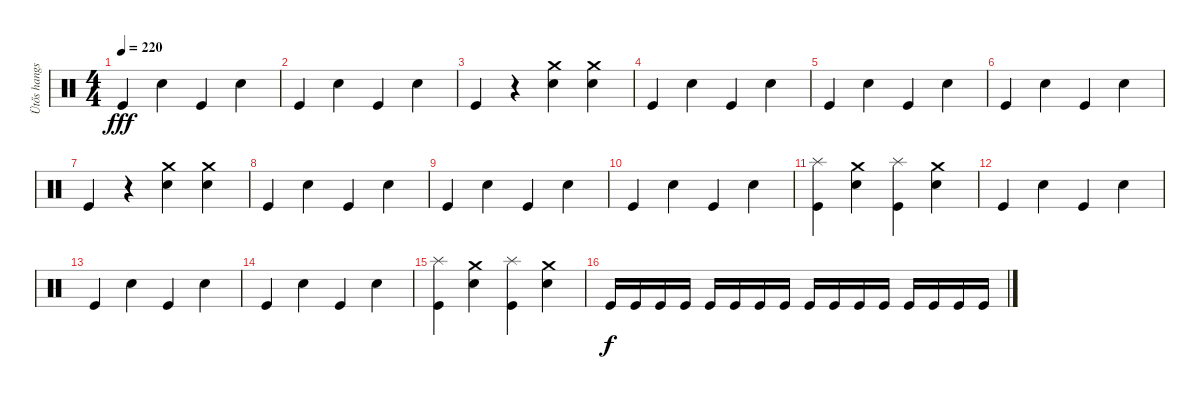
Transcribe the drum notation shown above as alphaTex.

\track ("Ütős hangszer" "Ütős hangs") {instrument percussion}
\staff {score}
\articulation defaults
\ts (4 4)
\tempo 220
\clef neutral
\ks c "Kick (hit)".4{dy fff} "Snare (hit) 2".4 "Kick (hit)".4 "Snare (hit) 2".4
|
"Kick (hit)".4 "Snare (hit) 2".4 "Kick (hit)".4 "Snare (hit) 2".4 |
"Kick (hit)".4 r.4 ("Crash medium (hit)" "Snare (hit) 2").4 ("Crash medium (hit)" "Snare (hit) 2").4 |
"Kick (hit)".4 "Snare (hit) 2".4 "Kick (hit)".4 "Snare (hit) 2".4 |
"Kick (hit)".4 "Snare (hit) 2".4 "Kick (hit)".4 "Snare (hit) 2".4 |
"Kick (hit)".4 "Snare (hit) 2".4 "Kick (hit)".4 "Snare (hit) 2".4 |
"Kick (hit)".4 r.4 ("Crash medium (hit)" "Snare (hit) 2").4 ("Crash medium (hit)" "Snare (hit) 2").4 |
"Kick (hit)".4 "Snare (hit) 2".4 "Kick (hit)".4 "Snare (hit) 2".4 |
"Kick (hit)".4 "Snare (hit) 2".4 "Kick (hit)".4 "Snare (hit) 2".4 |
"Kick (hit)".4 "Snare (hit) 2".4 "Kick (hit)".4 "Snare (hit) 2".4 |
("Splash (hit)" "Kick (hit)").4 ("Crash medium (hit)" "Snare (hit) 2").4 ("Splash (hit)" "Kick (hit)").4 ("Crash medium (hit)" "Snare (hit) 2").4 |
"Kick (hit)".4 "Snare (hit) 2".4 "Kick (hit)".4 "Snare (hit) 2".4 |
"Kick (hit)".4 "Snare (hit) 2".4 "Kick (hit)".4 "Snare (hit) 2".4 |
"Kick (hit)".4 "Snare (hit) 2".4 "Kick (hit)".4 "Snare (hit) 2".4 |
("Splash (hit)" "Kick (hit)").4 ("Crash medium (hit)" "Snare (hit) 2").4 ("Splash (hit)" "Kick (hit)").4 ("Crash medium (hit)" "Snare (hit) 2").4 |
"Kick (hit)".16{dy f} "Kick (hit)".16 "Kick (hit)".16 "Kick (hit)".16 "Kick (hit)".16 "Kick (hit)".16 "Kick (hit)".16 "Kick (hit)".16 "Kick (hit)".16 "Kick (hit)".16 "Kick (hit)".16 "Kick (hit)".16 "Kick (hit)".16 "Kick (hit)".16 "Kick (hit)".16 "Kick (hit)".16
